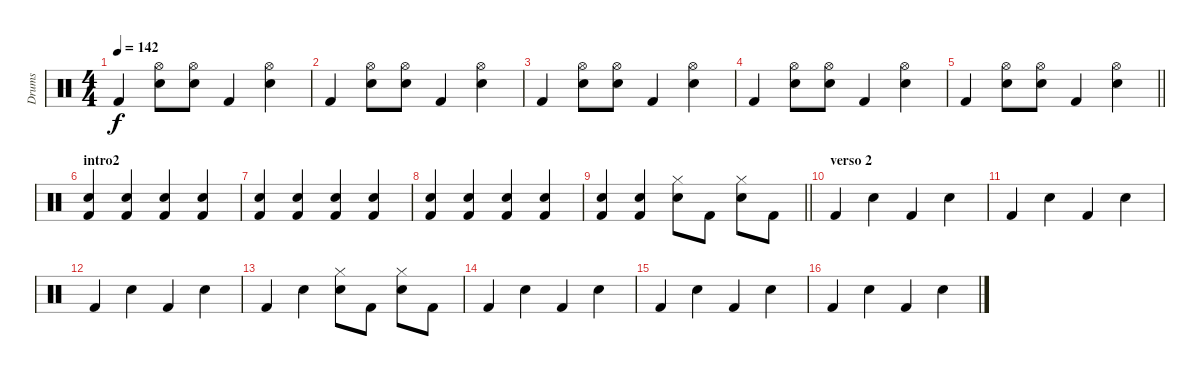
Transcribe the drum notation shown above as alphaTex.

\track ("Drums" "Drums") {instrument percussion}
\staff {score}
\articulation defaults
\ts (4 4)
\tempo 142
\clef neutral
\ks c "Kick (hit) 2".4{dy f}
("Electric Snare (hit)" "Hi-Hat (open)").8 ("Electric Snare (hit)" "Hi-Hat (open)").8 "Kick (hit) 2".4 ("Electric Snare (hit)" "Hi-Hat (open)").4 |
"Kick (hit) 2".4 ("Electric Snare (hit)" "Hi-Hat (open)").8 ("Electric Snare (hit)" "Hi-Hat (open)").8 "Kick (hit) 2".4 ("Electric Snare (hit)" "Hi-Hat (open)").4 |
"Kick (hit) 2".4 ("Electric Snare (hit)" "Hi-Hat (open)").8 ("Electric Snare (hit)" "Hi-Hat (open)").8 "Kick (hit) 2".4 ("Electric Snare (hit)" "Hi-Hat (open)").4 |
"Kick (hit) 2".4 ("Electric Snare (hit)" "Hi-Hat (open)").8 ("Electric Snare (hit)" "Hi-Hat (open)").8 "Kick (hit) 2".4 ("Electric Snare (hit)" "Hi-Hat (open)").4 |
\barLineRight lightlight "Kick (hit) 2".4
("Electric Snare (hit)" "Hi-Hat (open)").8 ("Electric Snare (hit)" "Hi-Hat (open)").8 "Kick (hit) 2".4 ("Electric Snare (hit)" "Hi-Hat (open)").4 |
\section ("" "intro2")
("Kick (hit) 2" "Electric Snare (hit)").4 ("Kick (hit) 2" "Electric Snare (hit)").4 ("Kick (hit) 2" "Electric Snare (hit)").4 ("Kick (hit) 2" "Electric Snare (hit)").4 |
("Kick (hit) 2" "Electric Snare (hit)").4 ("Kick (hit) 2" "Electric Snare (hit)").4 ("Kick (hit) 2" "Electric Snare (hit)").4 ("Kick (hit) 2" "Electric Snare (hit)").4 |
("Kick (hit) 2" "Electric Snare (hit)").4 ("Kick (hit) 2" "Electric Snare (hit)").4 ("Kick (hit) 2" "Electric Snare (hit)").4 ("Kick (hit) 2" "Electric Snare (hit)").4 |
\barLineRight lightlight
("Kick (hit) 2" "Electric Snare (hit)").4 ("Kick (hit) 2" "Electric Snare (hit)").4 ("Electric Snare (hit)" "Hi-Hat (closed)").8 "Kick (hit) 2".8 ("Electric Snare (hit)" "Hi-Hat (closed)").8 "Kick (hit) 2".8 |
\section ("" "verso 2")
"Kick (hit) 2".4 "Electric Snare (hit)".4 "Kick (hit) 2".4 "Electric Snare (hit)".4 |
"Kick (hit) 2".4 "Electric Snare (hit)".4 "Kick (hit) 2".4 "Electric Snare (hit)".4 |
"Kick (hit) 2".4 "Electric Snare (hit)".4 "Kick (hit) 2".4 "Electric Snare (hit)".4 |
"Kick (hit) 2".4 "Electric Snare (hit)".4 ("Electric Snare (hit)" "Hi-Hat (closed)").8 "Kick (hit) 2".8 ("Electric Snare (hit)" "Hi-Hat (closed)").8 "Kick (hit) 2".8 |
"Kick (hit) 2".4 "Electric Snare (hit)".4 "Kick (hit) 2".4 "Electric Snare (hit)".4 |
"Kick (hit) 2".4 "Electric Snare (hit)".4 "Kick (hit) 2".4 "Electric Snare (hit)".4 |
"Kick (hit) 2".4 "Electric Snare (hit)".4 "Kick (hit) 2".4 "Electric Snare (hit)".4
